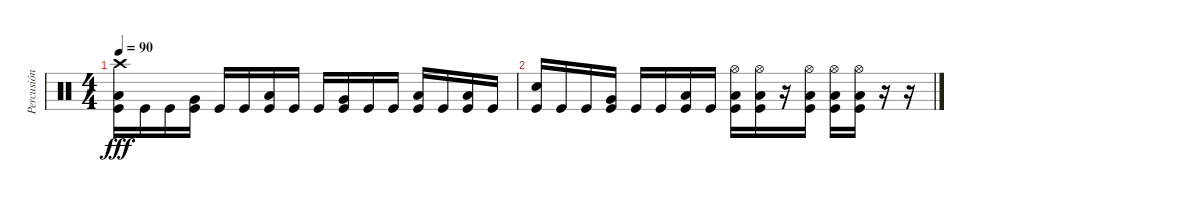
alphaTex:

\track ("Percusión" "Percusión") {instrument percussion}
\staff {score}
\articulation defaults
\ts (4 4)
\tempo 90
\clef neutral
\ks c
("Crash high (hit)" "Low Tom (hit)" "Kick (hit)").16{dy fff} "Kick (hit)".16 "Kick (hit)".16 ("Very Low Tom (hit)" "Kick (hit)").16 "Kick (hit)".16 "Kick (hit)".16 ("Low Tom (hit)" "Kick (hit)").16 "Kick (hit)".16 "Kick (hit)".16 ("Very Low Tom (hit)" "Kick (hit)").16 "Kick (hit)".16 "Kick (hit)".16 ("Low Floor Tom (hit)" "Kick (hit)").16 "Kick (hit)".16 ("Low Floor Tom (hit)" "Kick (hit)").16 "Kick (hit)".16 |
("Snare (hit) 2" "Kick (hit)").16 "Kick (hit)".16 "Kick (hit)".16 ("Very Low Tom (hit)" "Kick (hit)").16 "Kick (hit)".16 "Kick (hit)".16 ("Low Tom (hit)" "Kick (hit)").16 "Kick (hit)".16 ("Hi-Hat (open)" "Low Floor Tom (hit)" "Kick (hit)").16 ("Hi-Hat (open)" "Low Floor Tom (hit)" "Kick (hit)").16 r.16 ("Hi-Hat (open)" "Low Floor Tom (hit)" "Kick (hit)").16 ("Hi-Hat (open)" "Low Floor Tom (hit)" "Kick (hit)").16 ("Hi-Hat (open)" "Low Floor Tom (hit)" "Kick (hit)").16 r.16 r.16
